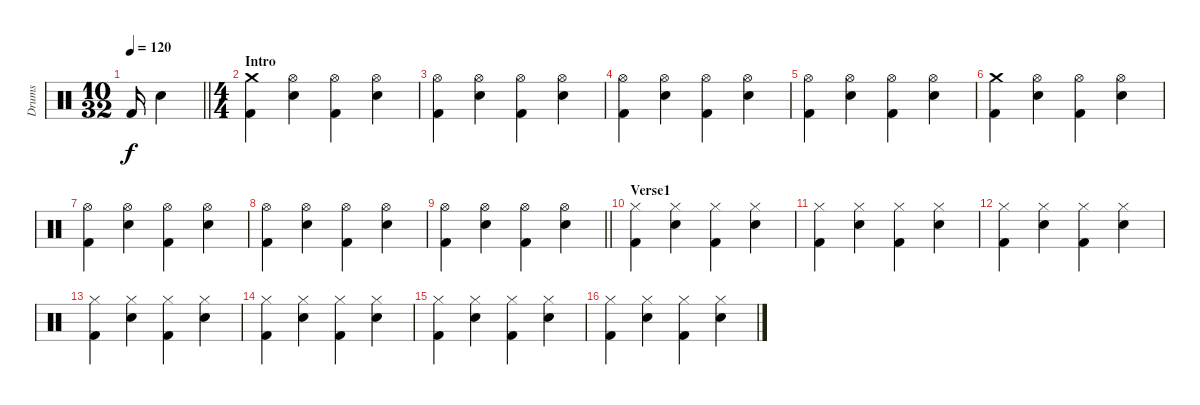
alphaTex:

\track ("Drums" "Drums") {instrument percussion}
\staff {score}
\articulation defaults
\ts (10 32)
\tempo 120
\clef neutral
\barLineRight lightlight
\ks c "Kick (hit) 2".16{dy f} "Electric Snare (hit)".4
|
\ts (4 4)
\section ("" "Intro")
("Crash medium (hit)" "Kick (hit) 2").4 ("Hi-Hat (open)" "Electric Snare (hit)").4 ("Hi-Hat (open)" "Kick (hit) 2").4 ("Hi-Hat (open)" "Electric Snare (hit)").4 |
("Hi-Hat (open)" "Kick (hit) 2").4 ("Hi-Hat (open)" "Electric Snare (hit)").4 ("Hi-Hat (open)" "Kick (hit) 2").4 ("Hi-Hat (open)" "Electric Snare (hit)").4 |
("Hi-Hat (open)" "Kick (hit) 2").4 ("Hi-Hat (open)" "Electric Snare (hit)").4 ("Hi-Hat (open)" "Kick (hit) 2").4 ("Hi-Hat (open)" "Electric Snare (hit)").4 |
("Hi-Hat (open)" "Kick (hit) 2").4 ("Hi-Hat (open)" "Electric Snare (hit)").4 ("Hi-Hat (open)" "Kick (hit) 2").4 ("Hi-Hat (open)" "Electric Snare (hit)").4 |
("Crash medium (hit)" "Kick (hit) 2").4 ("Hi-Hat (open)" "Electric Snare (hit)").4 ("Hi-Hat (open)" "Kick (hit) 2").4 ("Hi-Hat (open)" "Electric Snare (hit)").4 |
("Hi-Hat (open)" "Kick (hit) 2").4 ("Hi-Hat (open)" "Electric Snare (hit)").4 ("Hi-Hat (open)" "Kick (hit) 2").4 ("Hi-Hat (open)" "Electric Snare (hit)").4 |
("Hi-Hat (open)" "Kick (hit) 2").4 ("Hi-Hat (open)" "Electric Snare (hit)").4 ("Hi-Hat (open)" "Kick (hit) 2").4 ("Hi-Hat (open)" "Electric Snare (hit)").4 |
\barLineRight lightlight
("Hi-Hat (open)" "Kick (hit) 2").4 ("Hi-Hat (open)" "Electric Snare (hit)").4 ("Hi-Hat (open)" "Kick (hit) 2").4 ("Hi-Hat (open)" "Electric Snare (hit)").4 |
\section ("" "Verse1")
("Hi-Hat (closed)" "Kick (hit) 2").4 ("Hi-Hat (closed)" "Electric Snare (hit)").4 ("Hi-Hat (closed)" "Kick (hit) 2").4 ("Hi-Hat (closed)" "Electric Snare (hit)").4 |
("Hi-Hat (closed)" "Kick (hit) 2").4 ("Hi-Hat (closed)" "Electric Snare (hit)").4 ("Hi-Hat (closed)" "Kick (hit) 2").4 ("Hi-Hat (closed)" "Electric Snare (hit)").4 |
("Hi-Hat (closed)" "Kick (hit) 2").4 ("Hi-Hat (closed)" "Electric Snare (hit)").4 ("Hi-Hat (closed)" "Kick (hit) 2").4 ("Hi-Hat (closed)" "Electric Snare (hit)").4 |
("Hi-Hat (closed)" "Kick (hit) 2").4 ("Hi-Hat (closed)" "Electric Snare (hit)").4 ("Hi-Hat (closed)" "Kick (hit) 2").4 ("Hi-Hat (closed)" "Electric Snare (hit)").4 |
("Hi-Hat (closed)" "Kick (hit) 2").4 ("Hi-Hat (closed)" "Electric Snare (hit)").4 ("Hi-Hat (closed)" "Kick (hit) 2").4 ("Hi-Hat (closed)" "Electric Snare (hit)").4 |
("Hi-Hat (closed)" "Kick (hit) 2").4 ("Hi-Hat (closed)" "Electric Snare (hit)").4 ("Hi-Hat (closed)" "Kick (hit) 2").4 ("Hi-Hat (closed)" "Electric Snare (hit)").4 |
("Hi-Hat (closed)" "Kick (hit) 2").4 ("Hi-Hat (closed)" "Electric Snare (hit)").4 ("Hi-Hat (closed)" "Kick (hit) 2").4 ("Hi-Hat (closed)" "Electric Snare (hit)").4
